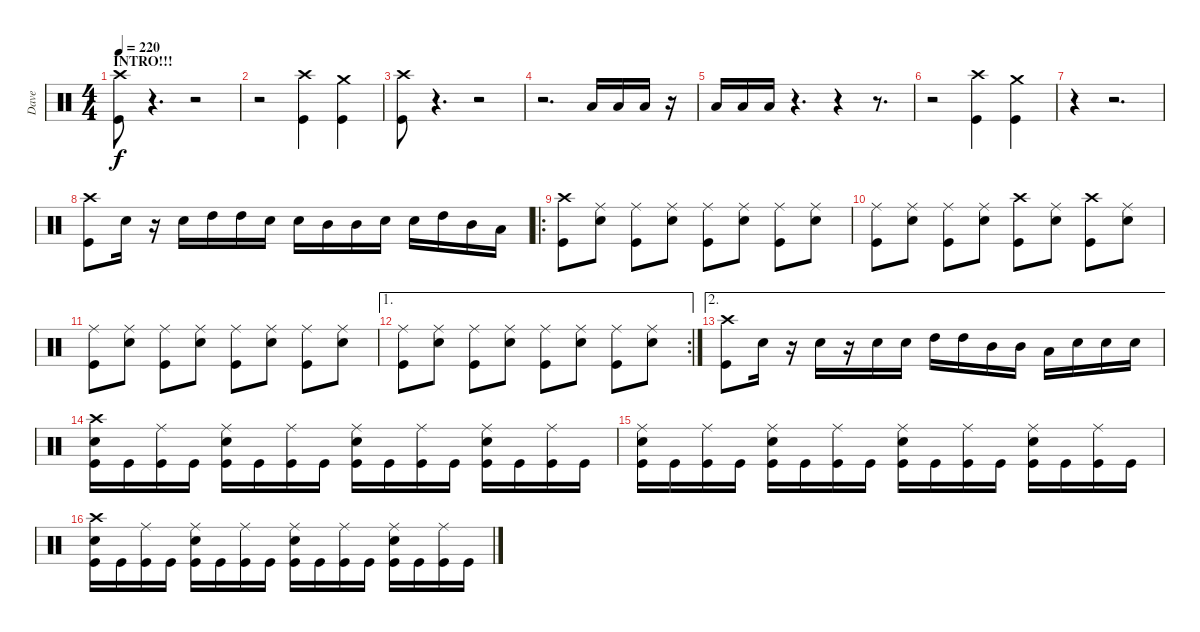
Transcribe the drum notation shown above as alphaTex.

\track ("Dave" "Dave") {instrument percussion}
\staff {score}
\articulation defaults
\ts (4 4)
\section ("" "INTRO!!!")
\tempo 220
\clef neutral
\ks c
("Crash high (hit)" "Kick (hit)").8{dy f} r.4{d} r.2 |
r.2 ("Crash high (hit)" "Kick (hit)").4 ("Crash medium (hit)" "Kick (hit)").4 |
("Crash high (hit)" "Kick (hit)").8 r.4{d} r.2 |
r.2{d} "Low Floor Tom (hit)".16 "Low Floor Tom (hit)".16 "Low Floor Tom (hit)".16 r.16 |
"Low Floor Tom (hit)".16 "Low Floor Tom (hit)".16 "Low Floor Tom (hit)".16 r.4{d} r.4 r.8{d} |
r.2 ("Crash high (hit)" "Kick (hit)").4 ("Crash medium (hit)" "Kick (hit)").4 |
r.4 r.2{d} |
("Crash high (hit)" "Kick (hit)").8 "Snare (hit) 2".16 r.16 "Snare (hit) 2".16 "High Tom (hit)".16 "High Tom (hit)".16 "Snare (hit) 2".16 "Snare (hit) 2".16 "Mid Tom (hit)".16 "Mid Tom (hit)".16 "Snare (hit) 2".16 "Snare (hit) 2".16 "High Tom (hit)".16 "Mid Tom (hit)".16 "Low Tom (hit)".16 |
\ro
("Crash high (hit)" "Kick (hit)").8 ("Ride (middle)" "Snare (hit) 2").8 ("Ride (middle)" "Kick (hit)").8 ("Ride (middle)" "Snare (hit) 2").8 ("Ride (middle)" "Kick (hit)").8 ("Ride (middle)" "Snare (hit) 2").8 ("Ride (middle)" "Kick (hit)").8 ("Ride (middle)" "Snare (hit) 2").8 |
("Ride (middle)" "Kick (hit)").8 ("Ride (middle)" "Snare (hit) 2").8 ("Ride (middle)" "Kick (hit)").8 ("Ride (middle)" "Snare (hit) 2").8 ("Crash high (hit)" "Kick (hit)").8 ("Ride (middle)" "Snare (hit) 2").8 ("Crash high (hit)" "Kick (hit)").8 ("Ride (middle)" "Snare (hit) 2").8 |
("Ride (middle)" "Kick (hit)").8 ("Ride (middle)" "Snare (hit) 2").8 ("Ride (middle)" "Kick (hit)").8 ("Ride (middle)" "Snare (hit) 2").8 ("Ride (middle)" "Kick (hit)").8 ("Ride (middle)" "Snare (hit) 2").8 ("Ride (middle)" "Kick (hit)").8 ("Ride (middle)" "Snare (hit) 2").8 |
\ae 1
\rc 2
("Ride (middle)" "Kick (hit)").8 ("Ride (middle)" "Snare (hit) 2").8 ("Ride (middle)" "Kick (hit)").8 ("Ride (middle)" "Snare (hit) 2").8 ("Ride (middle)" "Kick (hit)").8 ("Ride (middle)" "Snare (hit) 2").8 ("Ride (middle)" "Kick (hit)").8 ("Ride (middle)" "Snare (hit) 2").8 |
\ae 2
("Crash high (hit)" "Kick (hit)").8 "Snare (hit) 2".16 r.16 "Snare (hit) 2".16 r.16 "Snare (hit) 2".16 "Snare (hit) 2".16 "High Tom (hit)".16 "High Tom (hit)".16 "Mid Tom (hit)".16 "Mid Tom (hit)".16 "Low Tom (hit)".16 "Snare (hit) 2".16 "Snare (hit) 2".16 "Snare (hit) 2".16 |
("Crash high (hit)" "Snare (hit) 2" "Kick (hit)").16 "Kick (hit)".16 ("Ride (middle)" "Kick (hit)").16 "Kick (hit)".16 ("Ride (middle)" "Snare (hit) 2" "Kick (hit)").16 "Kick (hit)".16 ("Ride (middle)" "Kick (hit)").16 "Kick (hit)".16 ("Ride (middle)" "Snare (hit) 2" "Kick (hit)").16 "Kick (hit)".16 ("Ride (middle)" "Kick (hit)").16 "Kick (hit)".16 ("Ride (middle)" "Snare (hit) 2" "Kick (hit)").16 "Kick (hit)".16 ("Ride (middle)" "Kick (hit)").16 "Kick (hit)".16 |
("Ride (middle)" "Snare (hit) 2" "Kick (hit)").16 "Kick (hit)".16 ("Ride (middle)" "Kick (hit)").16 "Kick (hit)".16 ("Ride (middle)" "Snare (hit) 2" "Kick (hit)").16 "Kick (hit)".16 ("Ride (middle)" "Kick (hit)").16 "Kick (hit)".16 ("Ride (middle)" "Snare (hit) 2" "Kick (hit)").16 "Kick (hit)".16 ("Ride (middle)" "Kick (hit)").16 "Kick (hit)".16 ("Ride (middle)" "Snare (hit) 2" "Kick (hit)").16 "Kick (hit)".16 ("Ride (middle)" "Kick (hit)").16 "Kick (hit)".16 |
("Crash high (hit)" "Snare (hit) 2" "Kick (hit)").16 "Kick (hit)".16 ("Ride (middle)" "Kick (hit)").16 "Kick (hit)".16 ("Ride (middle)" "Snare (hit) 2" "Kick (hit)").16 "Kick (hit)".16 ("Ride (middle)" "Kick (hit)").16 "Kick (hit)".16 ("Ride (middle)" "Snare (hit) 2" "Kick (hit)").16 "Kick (hit)".16 ("Ride (middle)" "Kick (hit)").16 "Kick (hit)".16 ("Ride (middle)" "Snare (hit) 2" "Kick (hit)").16 "Kick (hit)".16 ("Ride (middle)" "Kick (hit)").16 "Kick (hit)".16
